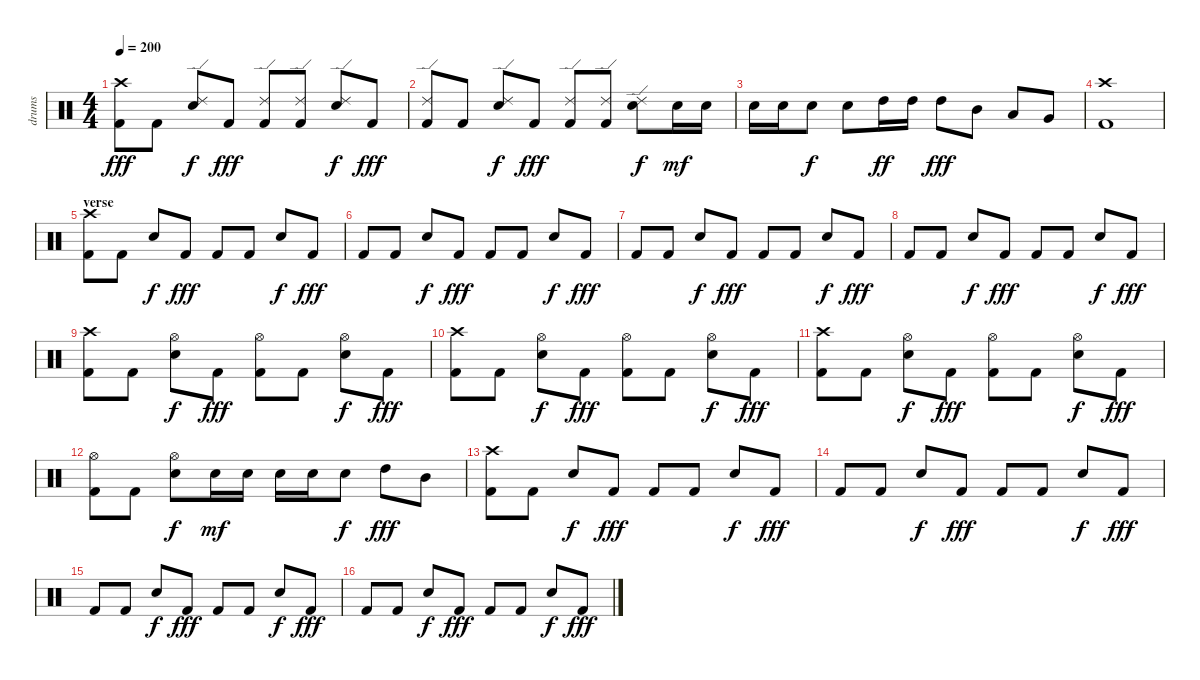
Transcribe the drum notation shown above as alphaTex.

\track ("drums" "drums") {instrument percussion}
\staff {score}
\articulation defaults
\ts (4 4)
\tempo 200
\clef neutral
\ks c
("Crash high (hit)" "Kick (hit) 2").8{dy fff} "Kick (hit) 2".8 ("Ride (edge) 2" "Snare (hit) 2").8{dy f} "Kick (hit) 2".8{dy fff} ("Ride (edge) 2" "Kick (hit) 2").8 ("Ride (edge) 2" "Kick (hit) 2").8 ("Ride (edge) 2" "Snare (hit) 2").8{dy f} "Kick (hit) 2".8{dy fff} |
("Ride (edge) 2" "Kick (hit) 2").8 "Kick (hit) 2".8 ("Ride (edge) 2" "Snare (hit) 2").8{dy f} "Kick (hit) 2".8{dy fff} ("Ride (edge) 2" "Kick (hit) 2").8 ("Ride (edge) 2" "Kick (hit) 2").8 ("Ride (edge) 2" "Snare (hit) 2").8{dy f} "Snare (hit) 2".16{dy mf} "Snare (hit) 2".16 |
"Snare (hit) 2".16 "Snare (hit) 2".16 "Snare (hit) 2".8{dy f} "Snare (hit) 2".8 "High Tom (hit)".16{dy ff} "High Tom (hit)".16 "High Tom (hit)".8{dy fff} "Mid Tom (hit)".8 "Low Tom (hit)".8 "Very Low Tom (hit)".8 |
("Crash high (hit)" "Kick (hit) 2").1 |
\section ("" "verse")
("Crash high (hit)" "Kick (hit) 2").8 "Kick (hit) 2".8 "Snare (hit) 2".8{dy f} "Kick (hit) 2".8{dy fff} "Kick (hit) 2".8 "Kick (hit) 2".8 "Snare (hit) 2".8{dy f} "Kick (hit) 2".8{dy fff} |
"Kick (hit) 2".8 "Kick (hit) 2".8 "Snare (hit) 2".8{dy f} "Kick (hit) 2".8{dy fff} "Kick (hit) 2".8 "Kick (hit) 2".8 "Snare (hit) 2".8{dy f} "Kick (hit) 2".8{dy fff} |
"Kick (hit) 2".8 "Kick (hit) 2".8 "Snare (hit) 2".8{dy f} "Kick (hit) 2".8{dy fff} "Kick (hit) 2".8 "Kick (hit) 2".8 "Snare (hit) 2".8{dy f} "Kick (hit) 2".8{dy fff} |
"Kick (hit) 2".8 "Kick (hit) 2".8 "Snare (hit) 2".8{dy f} "Kick (hit) 2".8{dy fff} "Kick (hit) 2".8 "Kick (hit) 2".8 "Snare (hit) 2".8{dy f} "Kick (hit) 2".8{dy fff} |
("Crash high (hit)" "Kick (hit) 2").8 "Kick (hit) 2".8 ("Hi-Hat (open)" "Snare (hit) 2").8{dy f} "Kick (hit) 2".8{dy fff} ("Hi-Hat (open)" "Kick (hit) 2").8 "Kick (hit) 2".8 ("Hi-Hat (open)" "Snare (hit) 2").8{dy f} "Kick (hit) 2".8{dy fff} |
("Crash high (hit)" "Kick (hit) 2").8 "Kick (hit) 2".8 ("Hi-Hat (open)" "Snare (hit) 2").8{dy f} "Kick (hit) 2".8{dy fff} ("Hi-Hat (open)" "Kick (hit) 2").8 "Kick (hit) 2".8 ("Hi-Hat (open)" "Snare (hit) 2").8{dy f} "Kick (hit) 2".8{dy fff} |
("Crash high (hit)" "Kick (hit) 2").8 "Kick (hit) 2".8 ("Hi-Hat (open)" "Snare (hit) 2").8{dy f} "Kick (hit) 2".8{dy fff} ("Hi-Hat (open)" "Kick (hit) 2").8 "Kick (hit) 2".8 ("Hi-Hat (open)" "Snare (hit) 2").8{dy f} "Kick (hit) 2".8{dy fff} |
("Hi-Hat (open)" "Kick (hit) 2").8 "Kick (hit) 2".8 ("Hi-Hat (open)" "Snare (hit) 2").8{dy f} "Snare (hit) 2".16{dy mf} "Snare (hit) 2".16 "Snare (hit) 2".16 "Snare (hit) 2".16 "Snare (hit) 2".8{dy f} "High Tom (hit)".8{dy fff} "Mid Tom (hit)".8 |
("Crash high (hit)" "Kick (hit) 2").8 "Kick (hit) 2".8 "Snare (hit) 2".8{dy f} "Kick (hit) 2".8{dy fff} "Kick (hit) 2".8 "Kick (hit) 2".8 "Snare (hit) 2".8{dy f} "Kick (hit) 2".8{dy fff} |
"Kick (hit) 2".8 "Kick (hit) 2".8 "Snare (hit) 2".8{dy f} "Kick (hit) 2".8{dy fff} "Kick (hit) 2".8 "Kick (hit) 2".8 "Snare (hit) 2".8{dy f} "Kick (hit) 2".8{dy fff} |
"Kick (hit) 2".8 "Kick (hit) 2".8 "Snare (hit) 2".8{dy f} "Kick (hit) 2".8{dy fff} "Kick (hit) 2".8 "Kick (hit) 2".8 "Snare (hit) 2".8{dy f} "Kick (hit) 2".8{dy fff} |
"Kick (hit) 2".8 "Kick (hit) 2".8 "Snare (hit) 2".8{dy f} "Kick (hit) 2".8{dy fff} "Kick (hit) 2".8 "Kick (hit) 2".8 "Snare (hit) 2".8{dy f} "Kick (hit) 2".8{dy fff}
